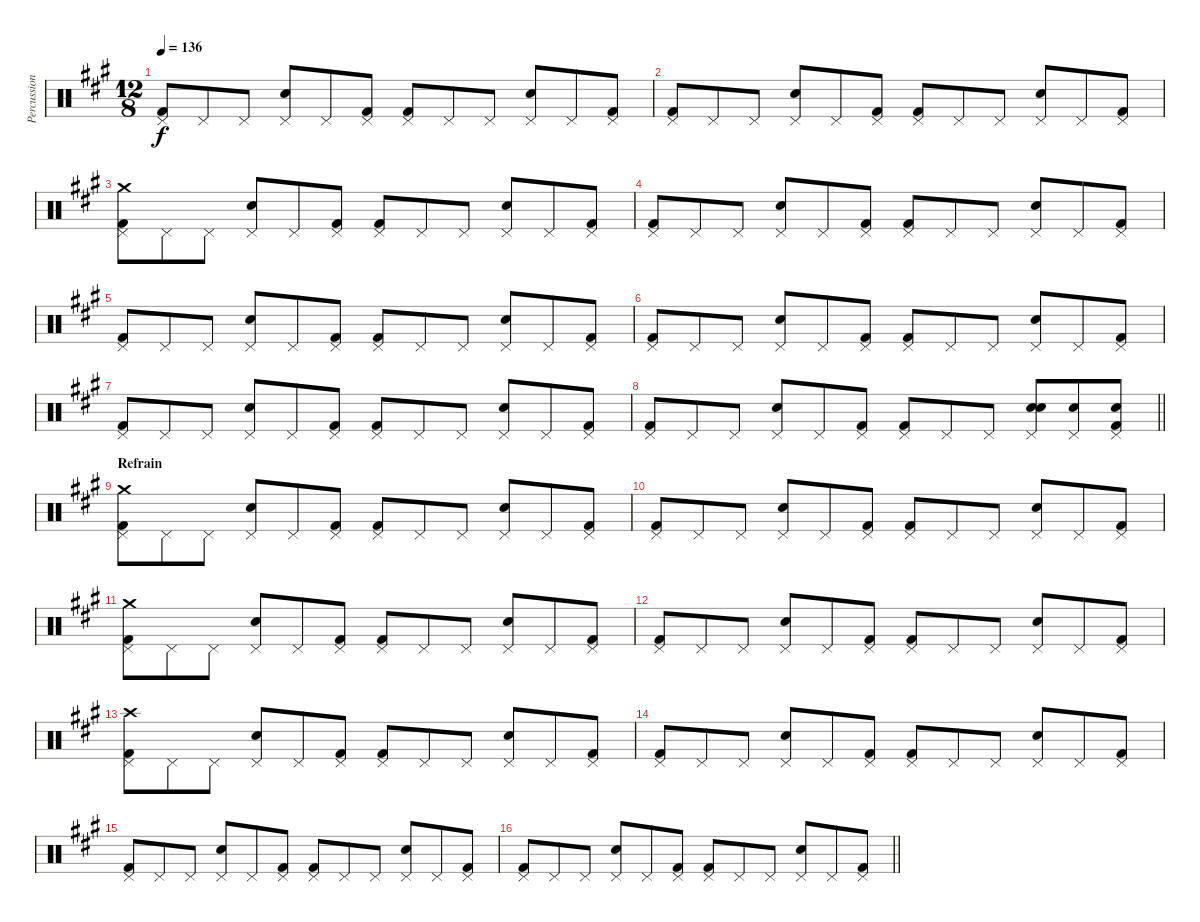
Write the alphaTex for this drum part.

\track ("Percussions" "Percussion") {instrument percussion}
\staff {score}
\articulation defaults
\ts (12 8)
\tempo 136
\clef neutral
\ks a
("Pedal Hi-Hat (hit)" "Kick (hit) 2").8{dy f} "Pedal Hi-Hat (hit)".8 "Pedal Hi-Hat (hit)".8 ("Pedal Hi-Hat (hit)" "Snare (hit) 2").8 "Pedal Hi-Hat (hit)".8 ("Pedal Hi-Hat (hit)" "Kick (hit) 2").8 ("Pedal Hi-Hat (hit)" "Kick (hit) 2").8 "Pedal Hi-Hat (hit)".8 "Pedal Hi-Hat (hit)".8 ("Pedal Hi-Hat (hit)" "Snare (hit) 2").8 "Pedal Hi-Hat (hit)".8 ("Pedal Hi-Hat (hit)" "Kick (hit) 2").8 |
("Pedal Hi-Hat (hit)" "Kick (hit) 2").8 "Pedal Hi-Hat (hit)".8 "Pedal Hi-Hat (hit)".8 ("Pedal Hi-Hat (hit)" "Snare (hit) 2").8 "Pedal Hi-Hat (hit)".8 ("Pedal Hi-Hat (hit)" "Kick (hit) 2").8 ("Pedal Hi-Hat (hit)" "Kick (hit) 2").8 "Pedal Hi-Hat (hit)".8 "Pedal Hi-Hat (hit)".8 ("Pedal Hi-Hat (hit)" "Snare (hit) 2").8 "Pedal Hi-Hat (hit)".8 ("Pedal Hi-Hat (hit)" "Kick (hit) 2").8 |
("Pedal Hi-Hat (hit)" "Crash medium (hit)" "Kick (hit) 2").8 "Pedal Hi-Hat (hit)".8 "Pedal Hi-Hat (hit)".8 ("Pedal Hi-Hat (hit)" "Snare (hit) 2").8 "Pedal Hi-Hat (hit)".8 ("Pedal Hi-Hat (hit)" "Kick (hit) 2").8 ("Pedal Hi-Hat (hit)" "Kick (hit) 2").8 "Pedal Hi-Hat (hit)".8 "Pedal Hi-Hat (hit)".8 ("Pedal Hi-Hat (hit)" "Snare (hit) 2").8 "Pedal Hi-Hat (hit)".8 ("Pedal Hi-Hat (hit)" "Kick (hit) 2").8 |
("Pedal Hi-Hat (hit)" "Kick (hit) 2").8 "Pedal Hi-Hat (hit)".8 "Pedal Hi-Hat (hit)".8 ("Pedal Hi-Hat (hit)" "Snare (hit) 2").8 "Pedal Hi-Hat (hit)".8 ("Pedal Hi-Hat (hit)" "Kick (hit) 2").8 ("Pedal Hi-Hat (hit)" "Kick (hit) 2").8 "Pedal Hi-Hat (hit)".8 "Pedal Hi-Hat (hit)".8 ("Pedal Hi-Hat (hit)" "Snare (hit) 2").8 "Pedal Hi-Hat (hit)".8 ("Pedal Hi-Hat (hit)" "Kick (hit) 2").8 |
("Pedal Hi-Hat (hit)" "Kick (hit) 2").8 "Pedal Hi-Hat (hit)".8 "Pedal Hi-Hat (hit)".8 ("Pedal Hi-Hat (hit)" "Snare (hit) 2").8 "Pedal Hi-Hat (hit)".8 ("Pedal Hi-Hat (hit)" "Kick (hit) 2").8 ("Pedal Hi-Hat (hit)" "Kick (hit) 2").8 "Pedal Hi-Hat (hit)".8 "Pedal Hi-Hat (hit)".8 ("Pedal Hi-Hat (hit)" "Snare (hit) 2").8 "Pedal Hi-Hat (hit)".8 ("Pedal Hi-Hat (hit)" "Kick (hit) 2").8 |
("Pedal Hi-Hat (hit)" "Kick (hit) 2").8 "Pedal Hi-Hat (hit)".8 "Pedal Hi-Hat (hit)".8 ("Pedal Hi-Hat (hit)" "Snare (hit) 2").8 "Pedal Hi-Hat (hit)".8 ("Pedal Hi-Hat (hit)" "Kick (hit) 2").8 ("Pedal Hi-Hat (hit)" "Kick (hit) 2").8 "Pedal Hi-Hat (hit)".8 "Pedal Hi-Hat (hit)".8 ("Pedal Hi-Hat (hit)" "Snare (hit) 2").8 "Pedal Hi-Hat (hit)".8 ("Pedal Hi-Hat (hit)" "Kick (hit) 2").8 |
("Pedal Hi-Hat (hit)" "Kick (hit) 2").8 "Pedal Hi-Hat (hit)".8 "Pedal Hi-Hat (hit)".8 ("Pedal Hi-Hat (hit)" "Snare (hit) 2").8 "Pedal Hi-Hat (hit)".8 ("Pedal Hi-Hat (hit)" "Kick (hit) 2").8 ("Pedal Hi-Hat (hit)" "Kick (hit) 2").8 "Pedal Hi-Hat (hit)".8 "Pedal Hi-Hat (hit)".8 ("Pedal Hi-Hat (hit)" "Snare (hit) 2").8 "Pedal Hi-Hat (hit)".8 ("Pedal Hi-Hat (hit)" "Kick (hit) 2").8 |
\barLineRight lightlight
("Pedal Hi-Hat (hit)" "Kick (hit) 2").8 "Pedal Hi-Hat (hit)".8 "Pedal Hi-Hat (hit)".8 ("Pedal Hi-Hat (hit)" "Snare (hit) 2").8 "Pedal Hi-Hat (hit)".8 ("Pedal Hi-Hat (hit)" "Kick (hit) 2").8 ("Pedal Hi-Hat (hit)" "Kick (hit) 2").8 "Pedal Hi-Hat (hit)".8 "Pedal Hi-Hat (hit)".8 ("Pedal Hi-Hat (hit)" "Snare (hit) 2" "Snare (hit) 2").8 ("Pedal Hi-Hat (hit)" "Snare (hit) 2").8 ("Pedal Hi-Hat (hit)" "Snare (hit) 2" "Kick (hit) 2").8 |
\section ("" "Refrain")
("Pedal Hi-Hat (hit)" "Crash medium (hit)" "Kick (hit) 2").8 "Pedal Hi-Hat (hit)".8 "Pedal Hi-Hat (hit)".8 ("Pedal Hi-Hat (hit)" "Snare (hit) 2").8 "Pedal Hi-Hat (hit)".8 ("Pedal Hi-Hat (hit)" "Kick (hit) 2").8 ("Pedal Hi-Hat (hit)" "Kick (hit) 2").8 "Pedal Hi-Hat (hit)".8 "Pedal Hi-Hat (hit)".8 ("Pedal Hi-Hat (hit)" "Snare (hit) 2").8 "Pedal Hi-Hat (hit)".8 ("Pedal Hi-Hat (hit)" "Kick (hit) 2").8 |
("Pedal Hi-Hat (hit)" "Kick (hit) 2").8 "Pedal Hi-Hat (hit)".8 "Pedal Hi-Hat (hit)".8 ("Pedal Hi-Hat (hit)" "Snare (hit) 2").8 "Pedal Hi-Hat (hit)".8 ("Pedal Hi-Hat (hit)" "Kick (hit) 2").8 ("Pedal Hi-Hat (hit)" "Kick (hit) 2").8 "Pedal Hi-Hat (hit)".8 "Pedal Hi-Hat (hit)".8 ("Pedal Hi-Hat (hit)" "Snare (hit) 2").8 "Pedal Hi-Hat (hit)".8 ("Pedal Hi-Hat (hit)" "Kick (hit) 2").8 |
("Pedal Hi-Hat (hit)" "Crash medium (hit)" "Kick (hit) 2").8 "Pedal Hi-Hat (hit)".8 "Pedal Hi-Hat (hit)".8 ("Pedal Hi-Hat (hit)" "Snare (hit) 2").8 "Pedal Hi-Hat (hit)".8 ("Pedal Hi-Hat (hit)" "Kick (hit) 2").8 ("Pedal Hi-Hat (hit)" "Kick (hit) 2").8 "Pedal Hi-Hat (hit)".8 "Pedal Hi-Hat (hit)".8 ("Pedal Hi-Hat (hit)" "Snare (hit) 2").8 "Pedal Hi-Hat (hit)".8 ("Pedal Hi-Hat (hit)" "Kick (hit) 2").8 |
("Pedal Hi-Hat (hit)" "Kick (hit) 2").8 "Pedal Hi-Hat (hit)".8 "Pedal Hi-Hat (hit)".8 ("Pedal Hi-Hat (hit)" "Snare (hit) 2").8 "Pedal Hi-Hat (hit)".8 ("Pedal Hi-Hat (hit)" "Kick (hit) 2").8 ("Pedal Hi-Hat (hit)" "Kick (hit) 2").8 "Pedal Hi-Hat (hit)".8 "Pedal Hi-Hat (hit)".8 ("Pedal Hi-Hat (hit)" "Snare (hit) 2").8 "Pedal Hi-Hat (hit)".8 ("Pedal Hi-Hat (hit)" "Kick (hit) 2").8 |
("Pedal Hi-Hat (hit)" "Crash high (hit)" "Kick (hit) 2").8 "Pedal Hi-Hat (hit)".8 "Pedal Hi-Hat (hit)".8 ("Pedal Hi-Hat (hit)" "Snare (hit) 2").8 "Pedal Hi-Hat (hit)".8 ("Pedal Hi-Hat (hit)" "Kick (hit) 2").8 ("Pedal Hi-Hat (hit)" "Kick (hit) 2").8 "Pedal Hi-Hat (hit)".8 "Pedal Hi-Hat (hit)".8 ("Pedal Hi-Hat (hit)" "Snare (hit) 2").8 "Pedal Hi-Hat (hit)".8 ("Pedal Hi-Hat (hit)" "Kick (hit) 2").8 |
("Pedal Hi-Hat (hit)" "Kick (hit) 2").8 "Pedal Hi-Hat (hit)".8 "Pedal Hi-Hat (hit)".8 ("Pedal Hi-Hat (hit)" "Snare (hit) 2").8 "Pedal Hi-Hat (hit)".8 ("Pedal Hi-Hat (hit)" "Kick (hit) 2").8 ("Pedal Hi-Hat (hit)" "Kick (hit) 2").8 "Pedal Hi-Hat (hit)".8 "Pedal Hi-Hat (hit)".8 ("Pedal Hi-Hat (hit)" "Snare (hit) 2").8 "Pedal Hi-Hat (hit)".8 ("Pedal Hi-Hat (hit)" "Kick (hit) 2").8 |
("Pedal Hi-Hat (hit)" "Kick (hit) 2").8 "Pedal Hi-Hat (hit)".8 "Pedal Hi-Hat (hit)".8 ("Pedal Hi-Hat (hit)" "Snare (hit) 2").8 "Pedal Hi-Hat (hit)".8 ("Pedal Hi-Hat (hit)" "Kick (hit) 2").8 ("Pedal Hi-Hat (hit)" "Kick (hit) 2").8 "Pedal Hi-Hat (hit)".8 "Pedal Hi-Hat (hit)".8 ("Pedal Hi-Hat (hit)" "Snare (hit) 2").8 "Pedal Hi-Hat (hit)".8 ("Pedal Hi-Hat (hit)" "Kick (hit) 2").8 |
\barLineRight lightlight
("Pedal Hi-Hat (hit)" "Kick (hit) 2").8 "Pedal Hi-Hat (hit)".8 "Pedal Hi-Hat (hit)".8 ("Pedal Hi-Hat (hit)" "Snare (hit) 2").8 "Pedal Hi-Hat (hit)".8 ("Pedal Hi-Hat (hit)" "Kick (hit) 2").8 ("Pedal Hi-Hat (hit)" "Kick (hit) 2").8 "Pedal Hi-Hat (hit)".8 "Pedal Hi-Hat (hit)".8 ("Pedal Hi-Hat (hit)" "Snare (hit) 2").8 "Pedal Hi-Hat (hit)".8 ("Pedal Hi-Hat (hit)" "Kick (hit) 2").8
